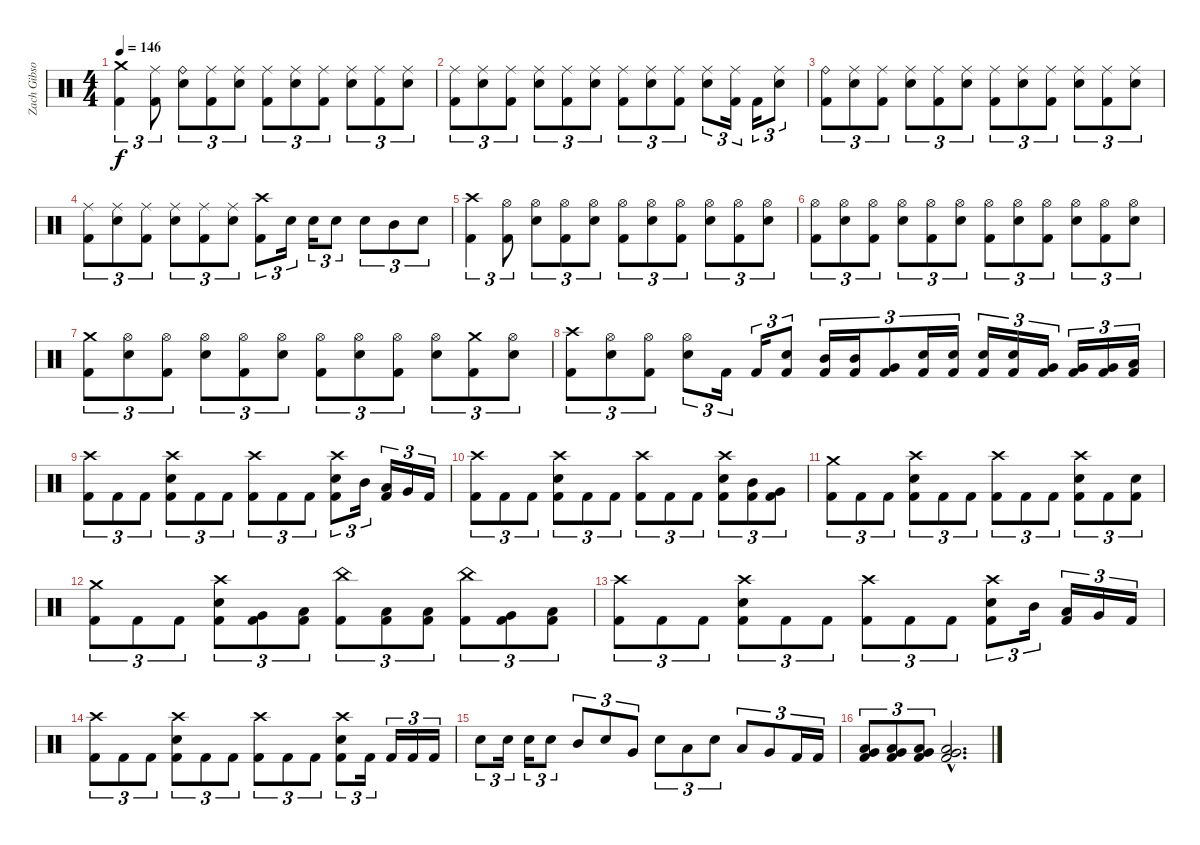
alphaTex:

\track ("Zach Gibson (Drums)" "Zach Gibso") {instrument percussion}
\staff {score}
\articulation defaults
\ts (4 4)
\tempo 146
\clef neutral
\ks c
("Crash medium (hit)" "Kick (hit) 2").4{tu (3 2) dy f} ("Ride (middle)" "Kick (hit) 2").8{tu (3 2)} ("Ride (bell)" "Snare (hit) 2").8{tu (3 2)} ("Ride (middle)" "Kick (hit) 2").8{tu (3 2)} ("Ride (middle)" "Snare (hit) 2").8{tu (3 2)} ("Ride (middle)" "Kick (hit) 2").8{tu (3 2)} ("Ride (middle)" "Snare (hit) 2").8{tu (3 2)} ("Ride (middle)" "Kick (hit) 2").8{tu (3 2)} ("Ride (middle)" "Snare (hit) 2").8{tu (3 2)} ("Ride (middle)" "Kick (hit) 2").8{tu (3 2)} ("Ride (middle)" "Snare (hit) 2").8{tu (3 2)} |
("Ride (middle)" "Kick (hit) 2").8{tu (3 2)} ("Ride (middle)" "Snare (hit) 2").8{tu (3 2)} ("Ride (middle)" "Kick (hit) 2").8{tu (3 2)} ("Ride (middle)" "Snare (hit) 2").8{tu (3 2)} ("Ride (middle)" "Kick (hit) 2").8{tu (3 2)} ("Ride (middle)" "Snare (hit) 2").8{tu (3 2)} ("Ride (middle)" "Kick (hit) 2").8{tu (3 2)} ("Ride (middle)" "Snare (hit) 2").8{tu (3 2)} ("Ride (middle)" "Kick (hit) 2").8{tu (3 2)} ("Ride (middle)" "Snare (hit) 2").8{tu (3 2)} ("Ride (middle)" "Kick (hit) 2").16{tu (3 2)} "Kick (hit) 2".16{tu (3 2)} ("Ride (middle)" "Snare (hit) 2").8{tu (3 2)} |
("Ride (bell)" "Kick (hit) 2").8{tu (3 2)} ("Ride (middle)" "Snare (hit) 2").8{tu (3 2)} ("Ride (middle)" "Kick (hit) 2").8{tu (3 2)} ("Ride (middle)" "Snare (hit) 2").8{tu (3 2)} ("Ride (middle)" "Kick (hit) 2").8{tu (3 2)} ("Ride (middle)" "Snare (hit) 2").8{tu (3 2)} ("Ride (middle)" "Kick (hit) 2").8{tu (3 2)} ("Ride (middle)" "Snare (hit) 2").8{tu (3 2)} ("Ride (middle)" "Kick (hit) 2").8{tu (3 2)} ("Ride (middle)" "Snare (hit) 2").8{tu (3 2)} ("Ride (middle)" "Kick (hit) 2").8{tu (3 2)} ("Ride (middle)" "Snare (hit) 2").8{tu (3 2)} |
("Ride (middle)" "Kick (hit) 2").8{tu (3 2)} ("Ride (middle)" "Snare (hit) 2").8{tu (3 2)} ("Ride (middle)" "Kick (hit) 2").8{tu (3 2)} ("Ride (middle)" "Snare (hit) 2").8{tu (3 2)} ("Ride (middle)" "Kick (hit) 2").8{tu (3 2)} ("Ride (middle)" "Snare (hit) 2").8{tu (3 2)} ("Crash high (hit)" "Kick (hit) 2").8{tu (3 2)} "Snare (hit) 2".16{tu (3 2)} "Snare (hit) 2".16{tu (3 2)} "Snare (hit) 2".8{tu (3 2)} "Snare (hit) 2".8{tu (3 2)} "Mid Tom (hit)".8{tu (3 2)} "Snare (hit) 2".8{tu (3 2)} |
("Crash high (hit)" "Kick (hit) 2").4{tu (3 2)} ("Hi-Hat (open)" "Kick (hit) 2").8{tu (3 2)} ("Hi-Hat (open)" "Snare (hit) 2").8{tu (3 2)} ("Hi-Hat (open)" "Kick (hit) 2").8{tu (3 2)} ("Hi-Hat (open)" "Snare (hit) 2").8{tu (3 2)} ("Hi-Hat (open)" "Kick (hit) 2").8{tu (3 2)} ("Hi-Hat (open)" "Snare (hit) 2").8{tu (3 2)} ("Hi-Hat (open)" "Kick (hit) 2").8{tu (3 2)} ("Hi-Hat (open)" "Snare (hit) 2").8{tu (3 2)} ("Hi-Hat (open)" "Kick (hit) 2").8{tu (3 2)} ("Hi-Hat (open)" "Snare (hit) 2").8{tu (3 2)} |
("Hi-Hat (open)" "Kick (hit) 2").8{tu (3 2)} ("Hi-Hat (open)" "Snare (hit) 2").8{tu (3 2)} ("Hi-Hat (open)" "Kick (hit) 2").8{tu (3 2)} ("Hi-Hat (open)" "Snare (hit) 2").8{tu (3 2)} ("Hi-Hat (open)" "Kick (hit) 2").8{tu (3 2)} ("Hi-Hat (open)" "Snare (hit) 2").8{tu (3 2)} ("Hi-Hat (open)" "Kick (hit) 2").8{tu (3 2)} ("Hi-Hat (open)" "Snare (hit) 2").8{tu (3 2)} ("Hi-Hat (open)" "Kick (hit) 2").8{tu (3 2)} ("Hi-Hat (open)" "Snare (hit) 2").8{tu (3 2)} ("Hi-Hat (open)" "Kick (hit) 2").8{tu (3 2)} ("Hi-Hat (open)" "Snare (hit) 2").8{tu (3 2)} |
("Crash medium (hit)" "Kick (hit) 2").8{tu (3 2)} ("Hi-Hat (open)" "Snare (hit) 2").8{tu (3 2)} ("Hi-Hat (open)" "Kick (hit) 2").8{tu (3 2)} ("Hi-Hat (open)" "Snare (hit) 2").8{tu (3 2)} ("Hi-Hat (open)" "Kick (hit) 2").8{tu (3 2)} ("Hi-Hat (open)" "Snare (hit) 2").8{tu (3 2)} ("Hi-Hat (open)" "Kick (hit) 2").8{tu (3 2)} ("Hi-Hat (open)" "Snare (hit) 2").8{tu (3 2)} ("Hi-Hat (open)" "Kick (hit) 2").8{tu (3 2)} ("Hi-Hat (open)" "Snare (hit) 2").8{tu (3 2)} ("Crash medium (hit)" "Kick (hit) 2").8{tu (3 2)} ("Hi-Hat (open)" "Snare (hit) 2").8{tu (3 2)} |
("Crash high (hit)" "Kick (hit) 2").8{tu (3 2)} ("Hi-Hat (open)" "Snare (hit) 2").8{tu (3 2)} ("Hi-Hat (open)" "Kick (hit) 2").8{tu (3 2)} ("Hi-Hat (open)" "Snare (hit) 2").8{tu (3 2)} "Kick (hit) 2".16{tu (3 2)} "Kick (hit) 2".16{tu (3 2)} ("Kick (hit) 2" "Snare (hit) 2").8{tu (3 2)} ("Kick (hit) 2" "Mid Tom (hit)").16{tu (3 2)} ("Kick (hit) 2" "Mid Tom (hit)").16{tu (3 2)} ("Kick (hit) 2" "Very Low Tom (hit)").8{tu (3 2)} ("Kick (hit) 2" "Snare (hit) 2").16{tu (3 2)} ("Kick (hit) 2" "Snare (hit) 2").16{tu (3 2)} ("Kick (hit) 2" "Snare (hit) 2").16{tu (3 2)} ("Kick (hit) 2" "Snare (hit) 2").16{tu (3 2)} ("Kick (hit) 2" "Very Low Tom (hit)").16{tu (3 2)} ("Kick (hit) 2" "Very Low Tom (hit)").16{tu (3 2)} ("Kick (hit) 2" "Very Low Tom (hit)").16{tu (3 2)} ("Kick (hit) 2" "Low Floor Tom (hit)").16{tu (3 2)} |
("Crash high (hit)" "Kick (hit) 2").8{tu (3 2)} "Kick (hit) 2".8{tu (3 2)} "Kick (hit) 2".8{tu (3 2)} ("Crash high (hit)" "Snare (hit) 2" "Kick (hit) 2").8{tu (3 2)} "Kick (hit) 2".8{tu (3 2)} "Kick (hit) 2".8{tu (3 2)} ("Crash high (hit)" "Kick (hit) 2").8{tu (3 2)} "Kick (hit) 2".8{tu (3 2)} "Kick (hit) 2".8{tu (3 2)} ("Crash high (hit)" "Snare (hit) 2" "Kick (hit) 2").8{tu (3 2)} "Mid Tom (hit)".16{tu (3 2)} ("Low Tom (hit)" "Kick (hit) 2").16{tu (3 2)} "Very Low Tom (hit)".16{tu (3 2)} "Kick (hit) 2".16{tu (3 2)} |
("Crash high (hit)" "Kick (hit) 2").8{tu (3 2)} "Kick (hit) 2".8{tu (3 2)} "Kick (hit) 2".8{tu (3 2)} ("Crash high (hit)" "Snare (hit) 2" "Kick (hit) 2").8{tu (3 2)} "Kick (hit) 2".8{tu (3 2)} "Kick (hit) 2".8{tu (3 2)} ("Crash high (hit)" "Kick (hit) 2").8{tu (3 2)} "Kick (hit) 2".8{tu (3 2)} "Kick (hit) 2".8{tu (3 2)} ("Crash high (hit)" "Snare (hit) 2" "Kick (hit) 2").8{tu (3 2)} ("Mid Tom (hit)" "Kick (hit) 2").8{tu (3 2)} ("Very Low Tom (hit)" "Kick (hit) 2").8{tu (3 2)} |
("Crash medium (hit)" "Kick (hit) 2").8{tu (3 2)} "Kick (hit) 2".8{tu (3 2)} "Kick (hit) 2".8{tu (3 2)} ("Crash high (hit)" "Snare (hit) 2" "Kick (hit) 2").8{tu (3 2)} "Kick (hit) 2".8{tu (3 2)} "Kick (hit) 2".8{tu (3 2)} ("Crash high (hit)" "Kick (hit) 2").8{tu (3 2)} "Kick (hit) 2".8{tu (3 2)} "Kick (hit) 2".8{tu (3 2)} ("Crash high (hit)" "Snare (hit) 2" "Kick (hit) 2").8{tu (3 2)} "Kick (hit) 2".8{tu (3 2)} ("Snare (hit) 2" "Kick (hit) 2").8{tu (3 2)} |
("Crash medium (hit)" "Kick (hit) 2").8{tu (3 2)} "Kick (hit) 2".8{tu (3 2)} "Kick (hit) 2".8{tu (3 2)} ("Crash high (hit)" "Snare (hit) 2" "Kick (hit) 2").8{tu (3 2)} ("Very Low Tom (hit)" "Kick (hit) 2").8{tu (3 2)} ("Low Floor Tom (hit)" "Kick (hit) 2").8{tu (3 2)} ("China (hit)" "Kick (hit) 2").8{tu (3 2)} ("Low Tom (hit)" "Kick (hit) 2").8{tu (3 2)} ("Low Floor Tom (hit)" "Kick (hit) 2").8{tu (3 2)} ("China (hit)" "Kick (hit) 2").8{tu (3 2)} ("Very Low Tom (hit)" "Kick (hit) 2").8{tu (3 2)} ("Low Floor Tom (hit)" "Kick (hit) 2").8{tu (3 2)} |
("Crash high (hit)" "Kick (hit) 2").8{tu (3 2)} "Kick (hit) 2".8{tu (3 2)} "Kick (hit) 2".8{tu (3 2)} ("Crash high (hit)" "Snare (hit) 2" "Kick (hit) 2").8{tu (3 2)} "Kick (hit) 2".8{tu (3 2)} "Kick (hit) 2".8{tu (3 2)} ("Crash high (hit)" "Kick (hit) 2").8{tu (3 2)} "Kick (hit) 2".8{tu (3 2)} "Kick (hit) 2".8{tu (3 2)} ("Crash high (hit)" "Snare (hit) 2" "Kick (hit) 2").8{tu (3 2)} "Mid Tom (hit)".16{tu (3 2)} ("Low Tom (hit)" "Kick (hit) 2").16{tu (3 2)} "Very Low Tom (hit)".16{tu (3 2)} "Kick (hit) 2".16{tu (3 2)} |
("Crash high (hit)" "Kick (hit) 2").8{tu (3 2)} "Kick (hit) 2".8{tu (3 2)} "Kick (hit) 2".8{tu (3 2)} ("Crash high (hit)" "Snare (hit) 2" "Kick (hit) 2").8{tu (3 2)} "Kick (hit) 2".8{tu (3 2)} "Kick (hit) 2".8{tu (3 2)} ("Crash high (hit)" "Kick (hit) 2").8{tu (3 2)} "Kick (hit) 2".8{tu (3 2)} "Kick (hit) 2".8{tu (3 2)} ("Crash high (hit)" "Snare (hit) 2" "Kick (hit) 2").8{tu (3 2)} "Kick (hit) 2".16{tu (3 2)} "Kick (hit) 2".16{tu (3 2)} "Kick (hit) 2".16{tu (3 2)} "Kick (hit) 2".16{tu (3 2)} |
"Snare (hit) 2".8{tu (3 2)} "Snare (hit) 2".16{tu (3 2)} "Snare (hit) 2".16{tu (3 2)} "Snare (hit) 2".8{tu (3 2)} "Mid Tom (hit)".8{tu (3 2)} "Snare (hit) 2".8{tu (3 2)} "Very Low Tom (hit)".8{tu (3 2)} "Snare (hit) 2".8{tu (3 2)} "Low Floor Tom (hit)".8{tu (3 2)} "Snare (hit) 2".8{tu (3 2)} "Low Tom (hit)".8{tu (3 2)} "Very Low Tom (hit)".8{tu (3 2)} "Kick (hit) 2".16{tu (3 2)} "Kick (hit) 2".16{tu (3 2)} |
("Very Low Tom (hit)" "Low Floor Tom (hit)" "Kick (hit) 2").8{tu (3 2)} ("Very Low Tom (hit)" "Low Floor Tom (hit)" "Kick (hit) 2").8{tu (3 2)} ("Very Low Tom (hit)" "Low Floor Tom (hit)" "Kick (hit) 2").8{tu (3 2)} ("Very Low Tom (hit)"{hac} "Low Floor Tom (hit)"{hac} "Kick (hit) 2"{hac}).2{d}
